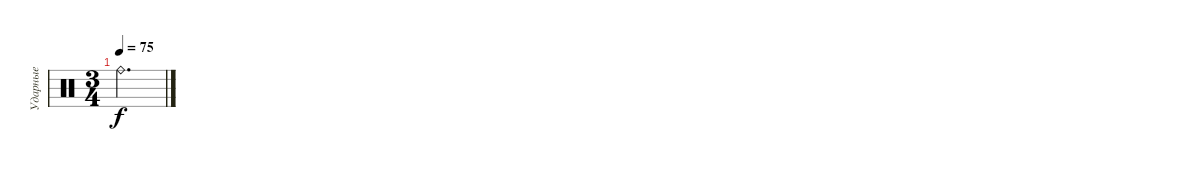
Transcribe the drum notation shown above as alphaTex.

\track ("Ударные" "Ударные") {instrument percussion}
\staff {score}
\articulation defaults
\ts (3 4)
\tempo 75
\clef neutral
\ks c "Ride (bell)".2{d dy f}
